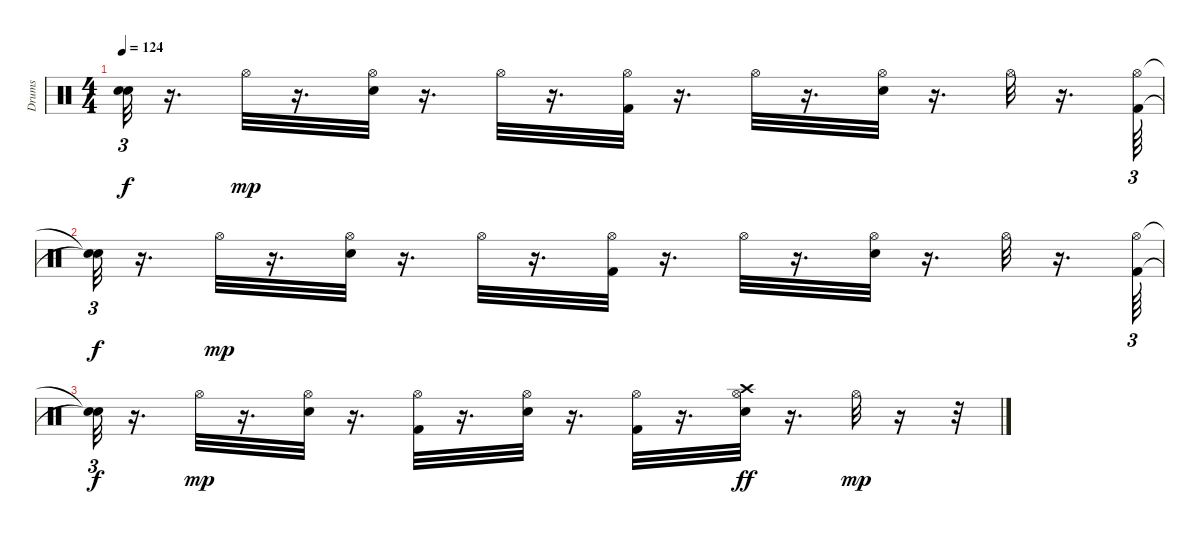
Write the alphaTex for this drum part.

\track ("Drums" "Drums") {instrument percussion}
\staff {score}
\articulation defaults
\ts (4 4)
\tempo 124
\clef neutral
\ks c
("Snare (hit)"{t} "Snare (hit)"{t}).32{tu (3 2) dy f} r.16{d} "Hi-Hat (open)".32{dy mp volume 6} r.16{d} ("Snare (hit) 2" "Hi-Hat (open)").32{volume 6} r.16{d} "Hi-Hat (open)".32{volume 5} r.16{d} ("Kick (hit) 2" "Hi-Hat (open)").32{volume 5} r.16{d} "Hi-Hat (open)".32{volume 5} r.16{d} ("Snare (hit) 2" "Hi-Hat (open)").32{volume 4} r.16{d} "Hi-Hat (open)".32{volume 4} r.16{d} ("Kick (hit) 2" "Hi-Hat (open)").64{tu (3 2) volume 4} |
("Snare (hit)"{t} "Snare (hit)"{t}).32{tu (3 2) dy f} r.16{d} "Hi-Hat (open)".32{dy mp volume 4} r.16{d} ("Snare (hit) 2" "Hi-Hat (open)").32{volume 4} r.16{d} "Hi-Hat (open)".32{volume 3} r.16{d} ("Kick (hit) 2" "Hi-Hat (open)").32{volume 3} r.16{d} "Hi-Hat (open)".32{volume 3} r.16{d} ("Snare (hit) 2" "Hi-Hat (open)").32{volume 2} r.16{d} "Hi-Hat (open)".32{volume 2} r.16{d} ("Kick (hit) 2" "Hi-Hat (open)").64{tu (3 2) volume 2} |
("Snare (hit)"{t} "Snare (hit)"{t}).32{tu (3 2) dy f} r.16{d} "Hi-Hat (open)".32{dy mp volume 2} r.16{d} ("Snare (hit) 2" "Hi-Hat (open)").32{volume 2} r.16{d} ("Kick (hit) 2" "Hi-Hat (open)").32{volume 1} r.16{d} ("Snare (hit) 2" "Hi-Hat (open)").32{volume 1} r.16{d} ("Kick (hit) 2" "Hi-Hat (open)").32{volume 1} r.16{d} ("Snare (hit) 2" "Hi-Hat (open)" "Crash high (hit)").32{dy ff volume 0} r.16{d} "Hi-Hat (open)".32{dy mp volume 0} r.16 r.32
